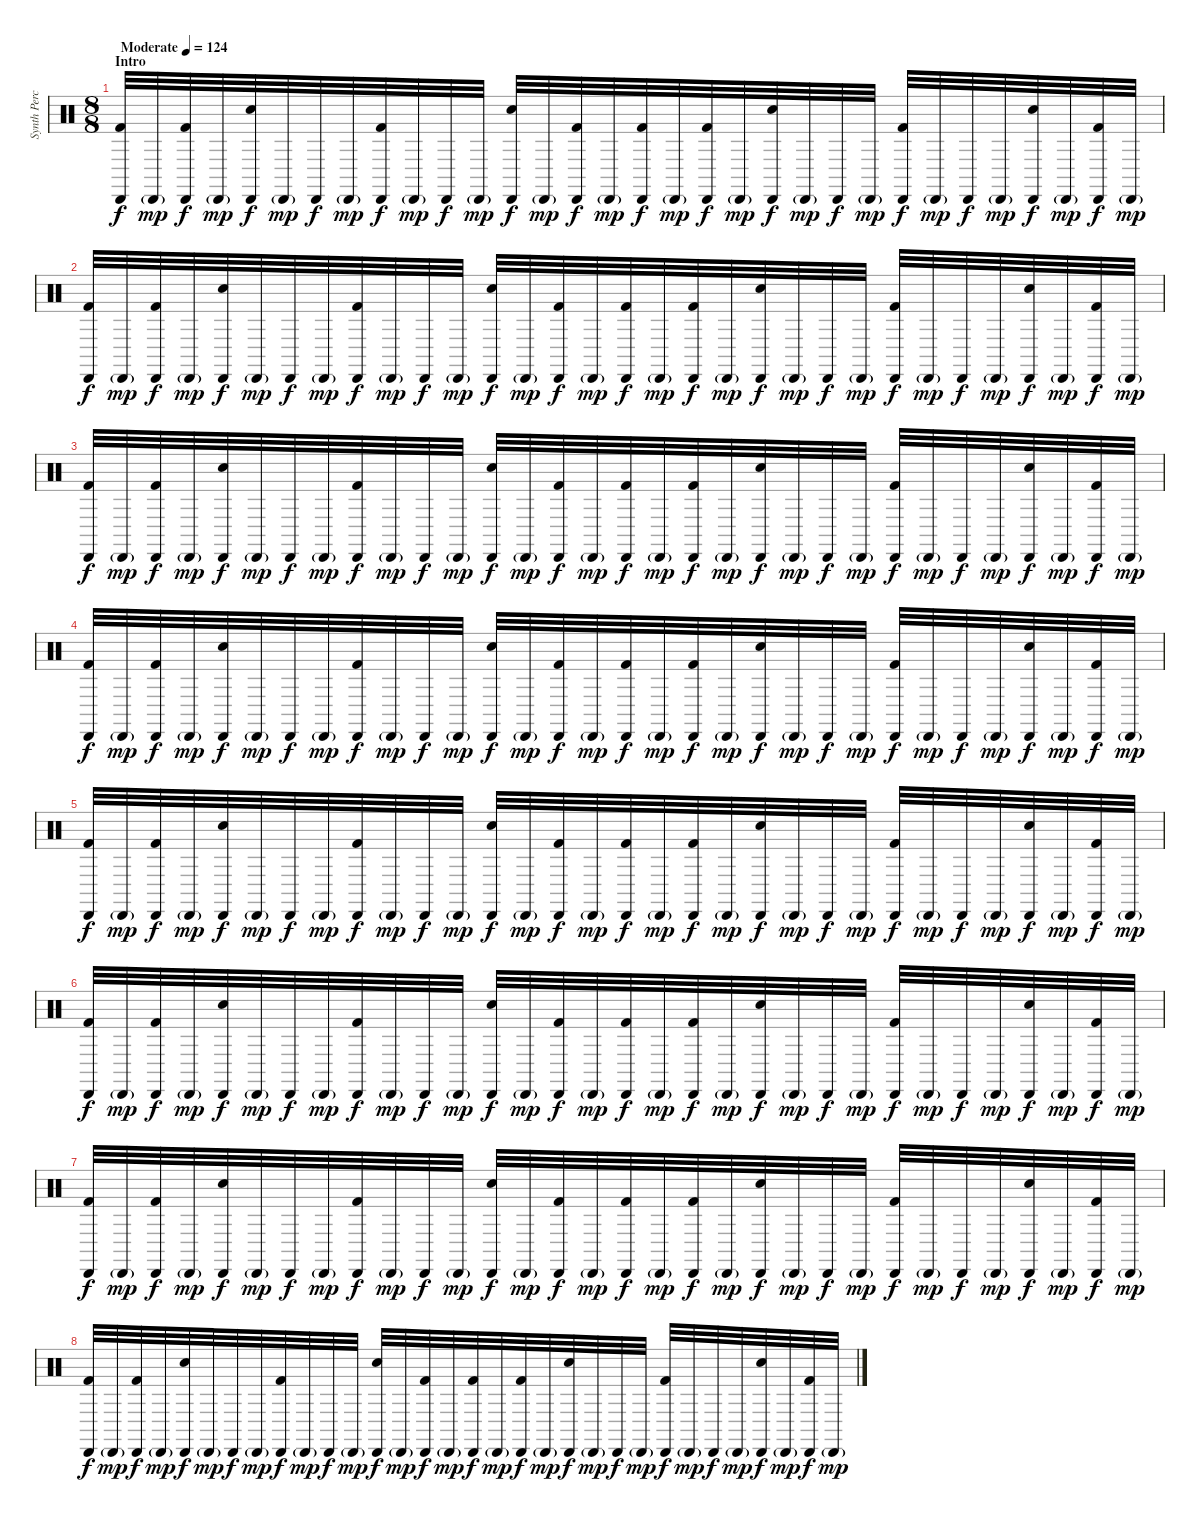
\track ("Synth Percussion" "Synth Perc") {instrument percussion}
\staff {score}
\articulation defaults
\ts (8 8)
\section ("" "Intro")
\tempo (124 "Moderate")
\clef neutral
\ks c
("Cabasa (hit)" "Kick (hit) 2").32{dy f} "Cabasa (hit)"{g}.32{dy mp} ("Cabasa (hit)" "Kick (hit) 2").32{dy f} "Cabasa (hit)"{g}.32{dy mp} ("Cabasa (hit)" "Snare (hit) 2").32{dy f} "Cabasa (hit)"{g}.32{dy mp} "Cabasa (hit)".32{dy f} "Cabasa (hit)"{g}.32{dy mp} ("Cabasa (hit)" "Kick (hit) 2").32{dy f} "Cabasa (hit)"{g}.32{dy mp} "Cabasa (hit)".32{dy f} "Cabasa (hit)"{g}.32{dy mp} ("Cabasa (hit)" "Snare (hit) 2").32{dy f} "Cabasa (hit)"{g}.32{dy mp} ("Cabasa (hit)" "Kick (hit) 2").32{dy f} "Cabasa (hit)"{g}.32{dy mp} ("Cabasa (hit)" "Kick (hit) 2").32{dy f} "Cabasa (hit)"{g}.32{dy mp} ("Cabasa (hit)" "Kick (hit) 2").32{dy f} "Cabasa (hit)"{g}.32{dy mp} ("Cabasa (hit)" "Snare (hit) 2").32{dy f} "Cabasa (hit)"{g}.32{dy mp} "Cabasa (hit)".32{dy f} "Cabasa (hit)"{g}.32{dy mp} ("Cabasa (hit)" "Kick (hit) 2").32{dy f} "Cabasa (hit)"{g}.32{dy mp} "Cabasa (hit)".32{dy f} "Cabasa (hit)"{g}.32{dy mp} ("Cabasa (hit)" "Snare (hit) 2").32{dy f} "Cabasa (hit)"{g}.32{dy mp} ("Cabasa (hit)" "Kick (hit) 2").32{dy f} "Cabasa (hit)"{g}.32{dy mp} |
("Cabasa (hit)" "Kick (hit) 2").32{dy f} "Cabasa (hit)"{g}.32{dy mp} ("Cabasa (hit)" "Kick (hit) 2").32{dy f} "Cabasa (hit)"{g}.32{dy mp} ("Cabasa (hit)" "Snare (hit) 2").32{dy f} "Cabasa (hit)"{g}.32{dy mp} "Cabasa (hit)".32{dy f} "Cabasa (hit)"{g}.32{dy mp} ("Cabasa (hit)" "Kick (hit) 2").32{dy f} "Cabasa (hit)"{g}.32{dy mp} "Cabasa (hit)".32{dy f} "Cabasa (hit)"{g}.32{dy mp} ("Cabasa (hit)" "Snare (hit) 2").32{dy f} "Cabasa (hit)"{g}.32{dy mp} ("Cabasa (hit)" "Kick (hit) 2").32{dy f} "Cabasa (hit)"{g}.32{dy mp} ("Cabasa (hit)" "Kick (hit) 2").32{dy f} "Cabasa (hit)"{g}.32{dy mp} ("Cabasa (hit)" "Kick (hit) 2").32{dy f} "Cabasa (hit)"{g}.32{dy mp} ("Cabasa (hit)" "Snare (hit) 2").32{dy f} "Cabasa (hit)"{g}.32{dy mp} "Cabasa (hit)".32{dy f} "Cabasa (hit)"{g}.32{dy mp} ("Cabasa (hit)" "Kick (hit) 2").32{dy f} "Cabasa (hit)"{g}.32{dy mp} "Cabasa (hit)".32{dy f} "Cabasa (hit)"{g}.32{dy mp} ("Cabasa (hit)" "Snare (hit) 2").32{dy f} "Cabasa (hit)"{g}.32{dy mp} ("Cabasa (hit)" "Kick (hit) 2").32{dy f} "Cabasa (hit)"{g}.32{dy mp} |
("Cabasa (hit)" "Kick (hit) 2").32{dy f} "Cabasa (hit)"{g}.32{dy mp} ("Cabasa (hit)" "Kick (hit) 2").32{dy f} "Cabasa (hit)"{g}.32{dy mp} ("Cabasa (hit)" "Snare (hit) 2").32{dy f} "Cabasa (hit)"{g}.32{dy mp} "Cabasa (hit)".32{dy f} "Cabasa (hit)"{g}.32{dy mp} ("Cabasa (hit)" "Kick (hit) 2").32{dy f} "Cabasa (hit)"{g}.32{dy mp} "Cabasa (hit)".32{dy f} "Cabasa (hit)"{g}.32{dy mp} ("Cabasa (hit)" "Snare (hit) 2").32{dy f} "Cabasa (hit)"{g}.32{dy mp} ("Cabasa (hit)" "Kick (hit) 2").32{dy f} "Cabasa (hit)"{g}.32{dy mp} ("Cabasa (hit)" "Kick (hit) 2").32{dy f} "Cabasa (hit)"{g}.32{dy mp} ("Cabasa (hit)" "Kick (hit) 2").32{dy f} "Cabasa (hit)"{g}.32{dy mp} ("Cabasa (hit)" "Snare (hit) 2").32{dy f} "Cabasa (hit)"{g}.32{dy mp} "Cabasa (hit)".32{dy f} "Cabasa (hit)"{g}.32{dy mp} ("Cabasa (hit)" "Kick (hit) 2").32{dy f} "Cabasa (hit)"{g}.32{dy mp} "Cabasa (hit)".32{dy f} "Cabasa (hit)"{g}.32{dy mp} ("Cabasa (hit)" "Snare (hit) 2").32{dy f} "Cabasa (hit)"{g}.32{dy mp} ("Cabasa (hit)" "Kick (hit) 2").32{dy f} "Cabasa (hit)"{g}.32{dy mp} |
("Cabasa (hit)" "Kick (hit) 2").32{dy f} "Cabasa (hit)"{g}.32{dy mp} ("Cabasa (hit)" "Kick (hit) 2").32{dy f} "Cabasa (hit)"{g}.32{dy mp} ("Cabasa (hit)" "Snare (hit) 2").32{dy f} "Cabasa (hit)"{g}.32{dy mp} "Cabasa (hit)".32{dy f} "Cabasa (hit)"{g}.32{dy mp} ("Cabasa (hit)" "Kick (hit) 2").32{dy f} "Cabasa (hit)"{g}.32{dy mp} "Cabasa (hit)".32{dy f} "Cabasa (hit)"{g}.32{dy mp} ("Cabasa (hit)" "Snare (hit) 2").32{dy f} "Cabasa (hit)"{g}.32{dy mp} ("Cabasa (hit)" "Kick (hit) 2").32{dy f} "Cabasa (hit)"{g}.32{dy mp} ("Cabasa (hit)" "Kick (hit) 2").32{dy f} "Cabasa (hit)"{g}.32{dy mp} ("Cabasa (hit)" "Kick (hit) 2").32{dy f} "Cabasa (hit)"{g}.32{dy mp} ("Cabasa (hit)" "Snare (hit) 2").32{dy f} "Cabasa (hit)"{g}.32{dy mp} "Cabasa (hit)".32{dy f} "Cabasa (hit)"{g}.32{dy mp} ("Cabasa (hit)" "Kick (hit) 2").32{dy f} "Cabasa (hit)"{g}.32{dy mp} "Cabasa (hit)".32{dy f} "Cabasa (hit)"{g}.32{dy mp} ("Cabasa (hit)" "Snare (hit) 2").32{dy f} "Cabasa (hit)"{g}.32{dy mp} ("Cabasa (hit)" "Kick (hit) 2").32{dy f} "Cabasa (hit)"{g}.32{dy mp} |
("Cabasa (hit)" "Kick (hit) 2").32{dy f} "Cabasa (hit)"{g}.32{dy mp} ("Cabasa (hit)" "Kick (hit) 2").32{dy f} "Cabasa (hit)"{g}.32{dy mp} ("Cabasa (hit)" "Snare (hit) 2").32{dy f} "Cabasa (hit)"{g}.32{dy mp} "Cabasa (hit)".32{dy f} "Cabasa (hit)"{g}.32{dy mp} ("Cabasa (hit)" "Kick (hit) 2").32{dy f} "Cabasa (hit)"{g}.32{dy mp} "Cabasa (hit)".32{dy f} "Cabasa (hit)"{g}.32{dy mp} ("Cabasa (hit)" "Snare (hit) 2").32{dy f} "Cabasa (hit)"{g}.32{dy mp} ("Cabasa (hit)" "Kick (hit) 2").32{dy f} "Cabasa (hit)"{g}.32{dy mp} ("Cabasa (hit)" "Kick (hit) 2").32{dy f} "Cabasa (hit)"{g}.32{dy mp} ("Cabasa (hit)" "Kick (hit) 2").32{dy f} "Cabasa (hit)"{g}.32{dy mp} ("Cabasa (hit)" "Snare (hit) 2").32{dy f} "Cabasa (hit)"{g}.32{dy mp} "Cabasa (hit)".32{dy f} "Cabasa (hit)"{g}.32{dy mp} ("Cabasa (hit)" "Kick (hit) 2").32{dy f} "Cabasa (hit)"{g}.32{dy mp} "Cabasa (hit)".32{dy f} "Cabasa (hit)"{g}.32{dy mp} ("Cabasa (hit)" "Snare (hit) 2").32{dy f} "Cabasa (hit)"{g}.32{dy mp} ("Cabasa (hit)" "Kick (hit) 2").32{dy f} "Cabasa (hit)"{g}.32{dy mp} |
("Cabasa (hit)" "Kick (hit) 2").32{dy f} "Cabasa (hit)"{g}.32{dy mp} ("Cabasa (hit)" "Kick (hit) 2").32{dy f} "Cabasa (hit)"{g}.32{dy mp} ("Cabasa (hit)" "Snare (hit) 2").32{dy f} "Cabasa (hit)"{g}.32{dy mp} "Cabasa (hit)".32{dy f} "Cabasa (hit)"{g}.32{dy mp} ("Cabasa (hit)" "Kick (hit) 2").32{dy f} "Cabasa (hit)"{g}.32{dy mp} "Cabasa (hit)".32{dy f} "Cabasa (hit)"{g}.32{dy mp} ("Cabasa (hit)" "Snare (hit) 2").32{dy f} "Cabasa (hit)"{g}.32{dy mp} ("Cabasa (hit)" "Kick (hit) 2").32{dy f} "Cabasa (hit)"{g}.32{dy mp} ("Cabasa (hit)" "Kick (hit) 2").32{dy f} "Cabasa (hit)"{g}.32{dy mp} ("Cabasa (hit)" "Kick (hit) 2").32{dy f} "Cabasa (hit)"{g}.32{dy mp} ("Cabasa (hit)" "Snare (hit) 2").32{dy f} "Cabasa (hit)"{g}.32{dy mp} "Cabasa (hit)".32{dy f} "Cabasa (hit)"{g}.32{dy mp} ("Cabasa (hit)" "Kick (hit) 2").32{dy f} "Cabasa (hit)"{g}.32{dy mp} "Cabasa (hit)".32{dy f} "Cabasa (hit)"{g}.32{dy mp} ("Cabasa (hit)" "Snare (hit) 2").32{dy f} "Cabasa (hit)"{g}.32{dy mp} ("Cabasa (hit)" "Kick (hit) 2").32{dy f} "Cabasa (hit)"{g}.32{dy mp} |
("Cabasa (hit)" "Kick (hit) 2").32{dy f} "Cabasa (hit)"{g}.32{dy mp} ("Cabasa (hit)" "Kick (hit) 2").32{dy f} "Cabasa (hit)"{g}.32{dy mp} ("Cabasa (hit)" "Snare (hit) 2").32{dy f} "Cabasa (hit)"{g}.32{dy mp} "Cabasa (hit)".32{dy f} "Cabasa (hit)"{g}.32{dy mp} ("Cabasa (hit)" "Kick (hit) 2").32{dy f} "Cabasa (hit)"{g}.32{dy mp} "Cabasa (hit)".32{dy f} "Cabasa (hit)"{g}.32{dy mp} ("Cabasa (hit)" "Snare (hit) 2").32{dy f} "Cabasa (hit)"{g}.32{dy mp} ("Cabasa (hit)" "Kick (hit) 2").32{dy f} "Cabasa (hit)"{g}.32{dy mp} ("Cabasa (hit)" "Kick (hit) 2").32{dy f} "Cabasa (hit)"{g}.32{dy mp} ("Cabasa (hit)" "Kick (hit) 2").32{dy f} "Cabasa (hit)"{g}.32{dy mp} ("Cabasa (hit)" "Snare (hit) 2").32{dy f} "Cabasa (hit)"{g}.32{dy mp} "Cabasa (hit)".32{dy f} "Cabasa (hit)"{g}.32{dy mp} ("Cabasa (hit)" "Kick (hit) 2").32{dy f} "Cabasa (hit)"{g}.32{dy mp} "Cabasa (hit)".32{dy f} "Cabasa (hit)"{g}.32{dy mp} ("Cabasa (hit)" "Snare (hit) 2").32{dy f} "Cabasa (hit)"{g}.32{dy mp} ("Cabasa (hit)" "Kick (hit) 2").32{dy f} "Cabasa (hit)"{g}.32{dy mp} |
("Cabasa (hit)" "Kick (hit) 2").32{dy f} "Cabasa (hit)"{g}.32{dy mp} ("Cabasa (hit)" "Kick (hit) 2").32{dy f} "Cabasa (hit)"{g}.32{dy mp} ("Cabasa (hit)" "Snare (hit) 2").32{dy f} "Cabasa (hit)"{g}.32{dy mp} "Cabasa (hit)".32{dy f} "Cabasa (hit)"{g}.32{dy mp} ("Cabasa (hit)" "Kick (hit) 2").32{dy f} "Cabasa (hit)"{g}.32{dy mp} "Cabasa (hit)".32{dy f} "Cabasa (hit)"{g}.32{dy mp} ("Cabasa (hit)" "Snare (hit) 2").32{dy f} "Cabasa (hit)"{g}.32{dy mp} ("Cabasa (hit)" "Kick (hit) 2").32{dy f} "Cabasa (hit)"{g}.32{dy mp} ("Cabasa (hit)" "Kick (hit) 2").32{dy f} "Cabasa (hit)"{g}.32{dy mp} ("Cabasa (hit)" "Kick (hit) 2").32{dy f} "Cabasa (hit)"{g}.32{dy mp} ("Cabasa (hit)" "Snare (hit) 2").32{dy f} "Cabasa (hit)"{g}.32{dy mp} "Cabasa (hit)".32{dy f} "Cabasa (hit)"{g}.32{dy mp} ("Cabasa (hit)" "Kick (hit) 2").32{dy f} "Cabasa (hit)"{g}.32{dy mp} "Cabasa (hit)".32{dy f} "Cabasa (hit)"{g}.32{dy mp} ("Cabasa (hit)" "Snare (hit) 2").32{dy f} "Cabasa (hit)"{g}.32{dy mp} ("Cabasa (hit)" "Kick (hit) 2").32{dy f} "Cabasa (hit)"{g}.32{dy mp}
